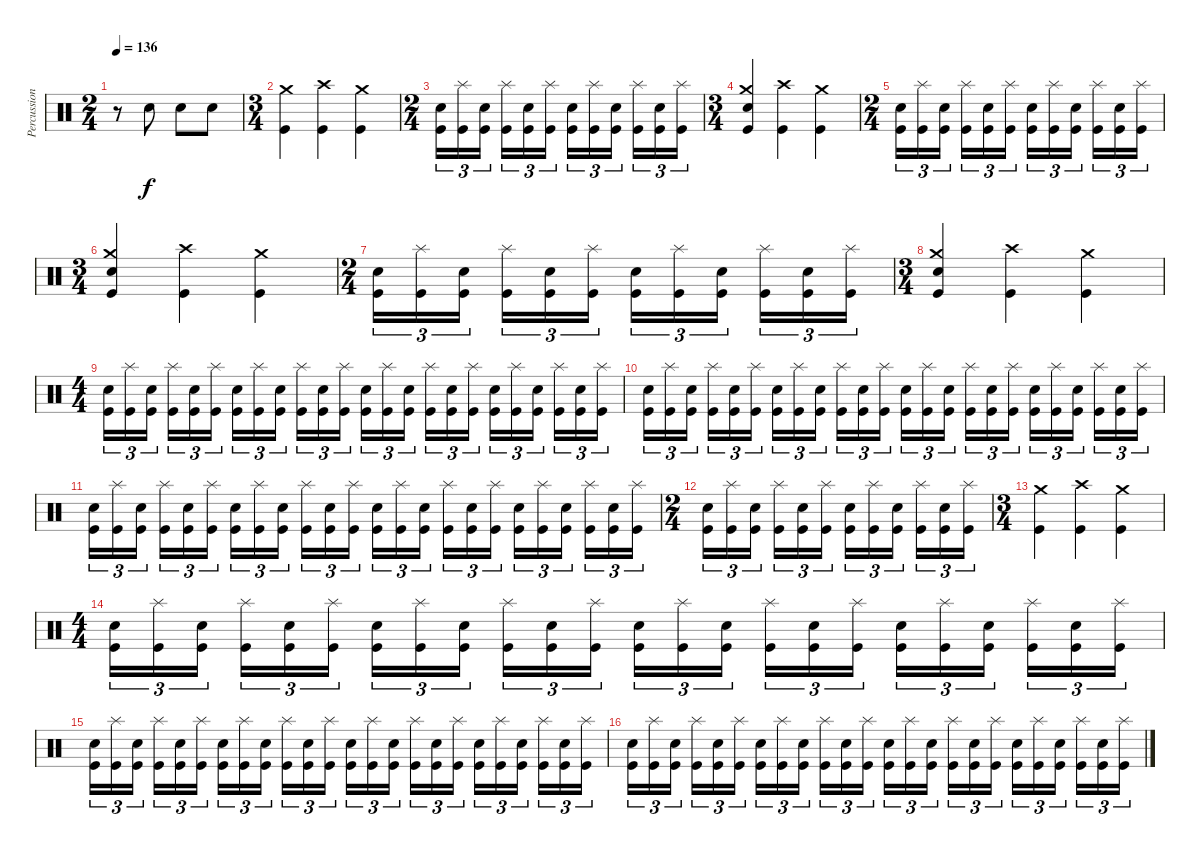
\track ("Percussion" "Percussion") {instrument percussion}
\staff {score}
\articulation defaults
\ts (2 4)
\tempo 136
\clef neutral
\ks c
r.8{dy f} "Electric Snare (hit)".8 "Electric Snare (hit)".8 "Electric Snare (hit)".8 |
\ts (3 4)
("Crash medium (hit)" "Kick (hit)").4 ("Crash high (hit)" "Kick (hit)").4 ("Crash medium (hit)" "Kick (hit)").4 |
\ts (2 4)
("Electric Snare (hit)" "Kick (hit)").16{tu (3 2)} ("Splash (hit)" "Kick (hit)").16{tu (3 2)} ("Electric Snare (hit)" "Kick (hit)").16{tu (3 2)} ("Splash (hit)" "Kick (hit)").16{tu (3 2)} ("Electric Snare (hit)" "Kick (hit)").16{tu (3 2)} ("Splash (hit)" "Kick (hit)").16{tu (3 2)} ("Electric Snare (hit)" "Kick (hit)").16{tu (3 2)} ("Splash (hit)" "Kick (hit)").16{tu (3 2)} ("Electric Snare (hit)" "Kick (hit)").16{tu (3 2)} ("Splash (hit)" "Kick (hit)").16{tu (3 2)} ("Electric Snare (hit)" "Kick (hit)").16{tu (3 2)} ("Splash (hit)" "Kick (hit)").16{tu (3 2)} |
\ts (3 4)
("Crash medium (hit)" "Electric Snare (hit)" "Kick (hit)").4 ("Crash high (hit)" "Kick (hit)").4 ("Crash medium (hit)" "Kick (hit)").4 |
\ts (2 4)
("Electric Snare (hit)" "Kick (hit)").16{tu (3 2)} ("Splash (hit)" "Kick (hit)").16{tu (3 2)} ("Electric Snare (hit)" "Kick (hit)").16{tu (3 2)} ("Splash (hit)" "Kick (hit)").16{tu (3 2)} ("Electric Snare (hit)" "Kick (hit)").16{tu (3 2)} ("Splash (hit)" "Kick (hit)").16{tu (3 2)} ("Electric Snare (hit)" "Kick (hit)").16{tu (3 2)} ("Splash (hit)" "Kick (hit)").16{tu (3 2)} ("Electric Snare (hit)" "Kick (hit)").16{tu (3 2)} ("Splash (hit)" "Kick (hit)").16{tu (3 2)} ("Electric Snare (hit)" "Kick (hit)").16{tu (3 2)} ("Splash (hit)" "Kick (hit)").16{tu (3 2)} |
\ts (3 4)
("Crash medium (hit)" "Electric Snare (hit)" "Kick (hit)").4 ("Crash high (hit)" "Kick (hit)").4 ("Crash medium (hit)" "Kick (hit)").4 |
\ts (2 4)
("Electric Snare (hit)" "Kick (hit)").16{tu (3 2)} ("Splash (hit)" "Kick (hit)").16{tu (3 2)} ("Electric Snare (hit)" "Kick (hit)").16{tu (3 2)} ("Splash (hit)" "Kick (hit)").16{tu (3 2)} ("Electric Snare (hit)" "Kick (hit)").16{tu (3 2)} ("Splash (hit)" "Kick (hit)").16{tu (3 2)} ("Electric Snare (hit)" "Kick (hit)").16{tu (3 2)} ("Splash (hit)" "Kick (hit)").16{tu (3 2)} ("Electric Snare (hit)" "Kick (hit)").16{tu (3 2)} ("Splash (hit)" "Kick (hit)").16{tu (3 2)} ("Electric Snare (hit)" "Kick (hit)").16{tu (3 2)} ("Splash (hit)" "Kick (hit)").16{tu (3 2)} |
\ts (3 4)
("Crash medium (hit)" "Electric Snare (hit)" "Kick (hit)").4 ("Crash high (hit)" "Kick (hit)").4 ("Crash medium (hit)" "Kick (hit)").4 |
\ts (4 4)
("Electric Snare (hit)" "Kick (hit)").16{tu (3 2)} ("Splash (hit)" "Kick (hit)").16{tu (3 2)} ("Electric Snare (hit)" "Kick (hit)").16{tu (3 2)} ("Splash (hit)" "Kick (hit)").16{tu (3 2)} ("Electric Snare (hit)" "Kick (hit)").16{tu (3 2)} ("Splash (hit)" "Kick (hit)").16{tu (3 2)} ("Electric Snare (hit)" "Kick (hit)").16{tu (3 2)} ("Splash (hit)" "Kick (hit)").16{tu (3 2)} ("Electric Snare (hit)" "Kick (hit)").16{tu (3 2)} ("Splash (hit)" "Kick (hit)").16{tu (3 2)} ("Electric Snare (hit)" "Kick (hit)").16{tu (3 2)} ("Splash (hit)" "Kick (hit)").16{tu (3 2)} ("Electric Snare (hit)" "Kick (hit)").16{tu (3 2)} ("Splash (hit)" "Kick (hit)").16{tu (3 2)} ("Electric Snare (hit)" "Kick (hit)").16{tu (3 2)} ("Splash (hit)" "Kick (hit)").16{tu (3 2)} ("Electric Snare (hit)" "Kick (hit)").16{tu (3 2)} ("Splash (hit)" "Kick (hit)").16{tu (3 2)} ("Electric Snare (hit)" "Kick (hit)").16{tu (3 2)} ("Splash (hit)" "Kick (hit)").16{tu (3 2)} ("Electric Snare (hit)" "Kick (hit)").16{tu (3 2)} ("Splash (hit)" "Kick (hit)").16{tu (3 2)} ("Electric Snare (hit)" "Kick (hit)").16{tu (3 2)} ("Splash (hit)" "Kick (hit)").16{tu (3 2)} |
("Electric Snare (hit)" "Kick (hit)").16{tu (3 2)} ("Splash (hit)" "Kick (hit)").16{tu (3 2)} ("Electric Snare (hit)" "Kick (hit)").16{tu (3 2)} ("Splash (hit)" "Kick (hit)").16{tu (3 2)} ("Electric Snare (hit)" "Kick (hit)").16{tu (3 2)} ("Splash (hit)" "Kick (hit)").16{tu (3 2)} ("Electric Snare (hit)" "Kick (hit)").16{tu (3 2)} ("Splash (hit)" "Kick (hit)").16{tu (3 2)} ("Electric Snare (hit)" "Kick (hit)").16{tu (3 2)} ("Splash (hit)" "Kick (hit)").16{tu (3 2)} ("Electric Snare (hit)" "Kick (hit)").16{tu (3 2)} ("Splash (hit)" "Kick (hit)").16{tu (3 2)} ("Electric Snare (hit)" "Kick (hit)").16{tu (3 2)} ("Splash (hit)" "Kick (hit)").16{tu (3 2)} ("Electric Snare (hit)" "Kick (hit)").16{tu (3 2)} ("Splash (hit)" "Kick (hit)").16{tu (3 2)} ("Electric Snare (hit)" "Kick (hit)").16{tu (3 2)} ("Splash (hit)" "Kick (hit)").16{tu (3 2)} ("Electric Snare (hit)" "Kick (hit)").16{tu (3 2)} ("Splash (hit)" "Kick (hit)").16{tu (3 2)} ("Electric Snare (hit)" "Kick (hit)").16{tu (3 2)} ("Splash (hit)" "Kick (hit)").16{tu (3 2)} ("Electric Snare (hit)" "Kick (hit)").16{tu (3 2)} ("Splash (hit)" "Kick (hit)").16{tu (3 2)} |
("Electric Snare (hit)" "Kick (hit)").16{tu (3 2)} ("Splash (hit)" "Kick (hit)").16{tu (3 2)} ("Electric Snare (hit)" "Kick (hit)").16{tu (3 2)} ("Splash (hit)" "Kick (hit)").16{tu (3 2)} ("Electric Snare (hit)" "Kick (hit)").16{tu (3 2)} ("Splash (hit)" "Kick (hit)").16{tu (3 2)} ("Electric Snare (hit)" "Kick (hit)").16{tu (3 2)} ("Splash (hit)" "Kick (hit)").16{tu (3 2)} ("Electric Snare (hit)" "Kick (hit)").16{tu (3 2)} ("Splash (hit)" "Kick (hit)").16{tu (3 2)} ("Electric Snare (hit)" "Kick (hit)").16{tu (3 2)} ("Splash (hit)" "Kick (hit)").16{tu (3 2)} ("Electric Snare (hit)" "Kick (hit)").16{tu (3 2)} ("Splash (hit)" "Kick (hit)").16{tu (3 2)} ("Electric Snare (hit)" "Kick (hit)").16{tu (3 2)} ("Splash (hit)" "Kick (hit)").16{tu (3 2)} ("Electric Snare (hit)" "Kick (hit)").16{tu (3 2)} ("Splash (hit)" "Kick (hit)").16{tu (3 2)} ("Electric Snare (hit)" "Kick (hit)").16{tu (3 2)} ("Splash (hit)" "Kick (hit)").16{tu (3 2)} ("Electric Snare (hit)" "Kick (hit)").16{tu (3 2)} ("Splash (hit)" "Kick (hit)").16{tu (3 2)} ("Electric Snare (hit)" "Kick (hit)").16{tu (3 2)} ("Splash (hit)" "Kick (hit)").16{tu (3 2)} |
\ts (2 4)
("Electric Snare (hit)" "Kick (hit)").16{tu (3 2)} ("Splash (hit)" "Kick (hit)").16{tu (3 2)} ("Electric Snare (hit)" "Kick (hit)").16{tu (3 2)} ("Splash (hit)" "Kick (hit)").16{tu (3 2)} ("Electric Snare (hit)" "Kick (hit)").16{tu (3 2)} ("Splash (hit)" "Kick (hit)").16{tu (3 2)} ("Electric Snare (hit)" "Kick (hit)").16{tu (3 2)} ("Splash (hit)" "Kick (hit)").16{tu (3 2)} ("Electric Snare (hit)" "Kick (hit)").16{tu (3 2)} ("Splash (hit)" "Kick (hit)").16{tu (3 2)} ("Electric Snare (hit)" "Kick (hit)").16{tu (3 2)} ("Splash (hit)" "Kick (hit)").16{tu (3 2)} |
\ts (3 4)
("Crash medium (hit)" "Kick (hit)").4 ("Crash high (hit)" "Kick (hit)").4 ("Crash medium (hit)" "Kick (hit)").4 |
\ts (4 4)
("Electric Snare (hit)" "Kick (hit)").16{tu (3 2)} ("Splash (hit)" "Kick (hit)").16{tu (3 2)} ("Electric Snare (hit)" "Kick (hit)").16{tu (3 2)} ("Splash (hit)" "Kick (hit)").16{tu (3 2)} ("Electric Snare (hit)" "Kick (hit)").16{tu (3 2)} ("Splash (hit)" "Kick (hit)").16{tu (3 2)} ("Electric Snare (hit)" "Kick (hit)").16{tu (3 2)} ("Splash (hit)" "Kick (hit)").16{tu (3 2)} ("Electric Snare (hit)" "Kick (hit)").16{tu (3 2)} ("Splash (hit)" "Kick (hit)").16{tu (3 2)} ("Electric Snare (hit)" "Kick (hit)").16{tu (3 2)} ("Splash (hit)" "Kick (hit)").16{tu (3 2)} ("Electric Snare (hit)" "Kick (hit)").16{tu (3 2)} ("Splash (hit)" "Kick (hit)").16{tu (3 2)} ("Electric Snare (hit)" "Kick (hit)").16{tu (3 2)} ("Splash (hit)" "Kick (hit)").16{tu (3 2)} ("Electric Snare (hit)" "Kick (hit)").16{tu (3 2)} ("Splash (hit)" "Kick (hit)").16{tu (3 2)} ("Electric Snare (hit)" "Kick (hit)").16{tu (3 2)} ("Splash (hit)" "Kick (hit)").16{tu (3 2)} ("Electric Snare (hit)" "Kick (hit)").16{tu (3 2)} ("Splash (hit)" "Kick (hit)").16{tu (3 2)} ("Electric Snare (hit)" "Kick (hit)").16{tu (3 2)} ("Splash (hit)" "Kick (hit)").16{tu (3 2)} |
("Electric Snare (hit)" "Kick (hit)").16{tu (3 2)} ("Splash (hit)" "Kick (hit)").16{tu (3 2)} ("Electric Snare (hit)" "Kick (hit)").16{tu (3 2)} ("Splash (hit)" "Kick (hit)").16{tu (3 2)} ("Electric Snare (hit)" "Kick (hit)").16{tu (3 2)} ("Splash (hit)" "Kick (hit)").16{tu (3 2)} ("Electric Snare (hit)" "Kick (hit)").16{tu (3 2)} ("Splash (hit)" "Kick (hit)").16{tu (3 2)} ("Electric Snare (hit)" "Kick (hit)").16{tu (3 2)} ("Splash (hit)" "Kick (hit)").16{tu (3 2)} ("Electric Snare (hit)" "Kick (hit)").16{tu (3 2)} ("Splash (hit)" "Kick (hit)").16{tu (3 2)} ("Electric Snare (hit)" "Kick (hit)").16{tu (3 2)} ("Splash (hit)" "Kick (hit)").16{tu (3 2)} ("Electric Snare (hit)" "Kick (hit)").16{tu (3 2)} ("Splash (hit)" "Kick (hit)").16{tu (3 2)} ("Electric Snare (hit)" "Kick (hit)").16{tu (3 2)} ("Splash (hit)" "Kick (hit)").16{tu (3 2)} ("Electric Snare (hit)" "Kick (hit)").16{tu (3 2)} ("Splash (hit)" "Kick (hit)").16{tu (3 2)} ("Electric Snare (hit)" "Kick (hit)").16{tu (3 2)} ("Splash (hit)" "Kick (hit)").16{tu (3 2)} ("Electric Snare (hit)" "Kick (hit)").16{tu (3 2)} ("Splash (hit)" "Kick (hit)").16{tu (3 2)} |
("Electric Snare (hit)" "Kick (hit)").16{tu (3 2)} ("Splash (hit)" "Kick (hit)").16{tu (3 2)} ("Electric Snare (hit)" "Kick (hit)").16{tu (3 2)} ("Splash (hit)" "Kick (hit)").16{tu (3 2)} ("Electric Snare (hit)" "Kick (hit)").16{tu (3 2)} ("Splash (hit)" "Kick (hit)").16{tu (3 2)} ("Electric Snare (hit)" "Kick (hit)").16{tu (3 2)} ("Splash (hit)" "Kick (hit)").16{tu (3 2)} ("Electric Snare (hit)" "Kick (hit)").16{tu (3 2)} ("Splash (hit)" "Kick (hit)").16{tu (3 2)} ("Electric Snare (hit)" "Kick (hit)").16{tu (3 2)} ("Splash (hit)" "Kick (hit)").16{tu (3 2)} ("Electric Snare (hit)" "Kick (hit)").16{tu (3 2)} ("Splash (hit)" "Kick (hit)").16{tu (3 2)} ("Electric Snare (hit)" "Kick (hit)").16{tu (3 2)} ("Splash (hit)" "Kick (hit)").16{tu (3 2)} ("Electric Snare (hit)" "Kick (hit)").16{tu (3 2)} ("Splash (hit)" "Kick (hit)").16{tu (3 2)} ("Electric Snare (hit)" "Kick (hit)").16{tu (3 2)} ("Splash (hit)" "Kick (hit)").16{tu (3 2)} ("Electric Snare (hit)" "Kick (hit)").16{tu (3 2)} ("Splash (hit)" "Kick (hit)").16{tu (3 2)} ("Electric Snare (hit)" "Kick (hit)").16{tu (3 2)} ("Splash (hit)" "Kick (hit)").16{tu (3 2)}
